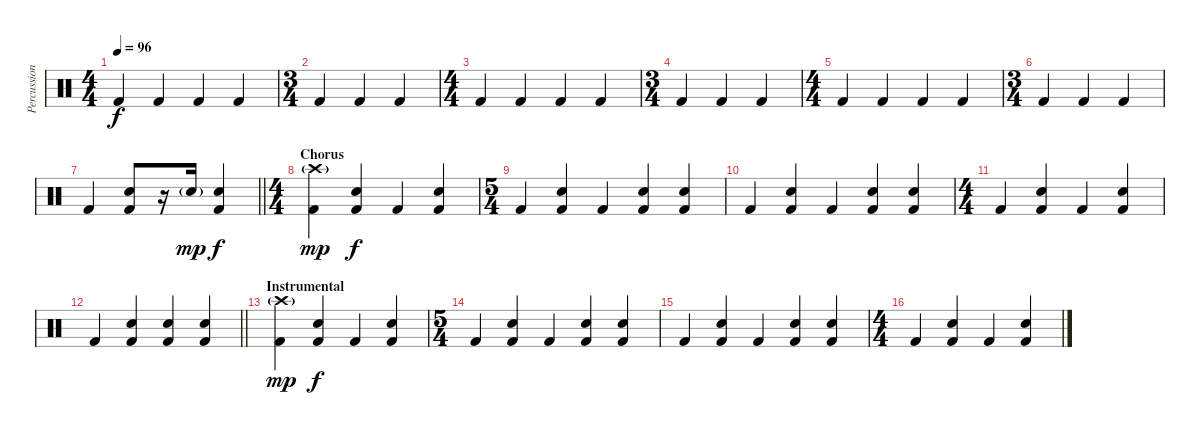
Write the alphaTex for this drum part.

\track ("Percussion" "Percussion") {instrument percussion}
\staff {score}
\articulation defaults
\ts (4 4)
\tempo 96
\clef neutral
\ks c "Kick (hit) 2".4{dy f} "Kick (hit) 2".4 "Kick (hit) 2".4 "Kick (hit) 2".4
|
\ts (3 4)
"Kick (hit) 2".4 "Kick (hit) 2".4 "Kick (hit) 2".4 |
\ts (4 4)
"Kick (hit) 2".4 "Kick (hit) 2".4 "Kick (hit) 2".4 "Kick (hit) 2".4 |
\ts (3 4)
"Kick (hit) 2".4 "Kick (hit) 2".4 "Kick (hit) 2".4 |
\ts (4 4)
"Kick (hit) 2".4 "Kick (hit) 2".4 "Kick (hit) 2".4 "Kick (hit) 2".4 |
\ts (3 4)
"Kick (hit) 2".4 "Kick (hit) 2".4 "Kick (hit) 2".4 |
\barLineRight lightlight "Kick (hit) 2".4
("Snare (hit) 2" "Kick (hit) 2").8 r.16 "Snare (hit) 2"{g}.16{dy mp} ("Snare (hit) 2" "Kick (hit) 2").4{dy f} |
\ts (4 4)
\section ("" "Chorus")
("Crash high (hit)"{g} "Kick (hit) 2").4{dy mp} ("Snare (hit) 2" "Kick (hit) 2").4{dy f} "Kick (hit) 2".4 ("Snare (hit) 2" "Kick (hit) 2").4 |
\ts (5 4)
"Kick (hit) 2".4 ("Snare (hit) 2" "Kick (hit) 2").4 "Kick (hit) 2".4 ("Snare (hit) 2" "Kick (hit) 2").4 ("Snare (hit) 2" "Kick (hit) 2").4 |
"Kick (hit) 2".4 ("Snare (hit) 2" "Kick (hit) 2").4 "Kick (hit) 2".4 ("Snare (hit) 2" "Kick (hit) 2").4 ("Snare (hit) 2" "Kick (hit) 2").4 |
\ts (4 4)
"Kick (hit) 2".4 ("Snare (hit) 2" "Kick (hit) 2").4 "Kick (hit) 2".4 ("Snare (hit) 2" "Kick (hit) 2").4 |
\barLineRight lightlight "Kick (hit) 2".4
("Snare (hit) 2" "Kick (hit) 2").4 ("Snare (hit) 2" "Kick (hit) 2").4 ("Snare (hit) 2" "Kick (hit) 2").4 |
\section ("" "Instrumental")
("Crash high (hit)"{g} "Kick (hit) 2").4{dy mp} ("Snare (hit) 2" "Kick (hit) 2").4{dy f} "Kick (hit) 2".4 ("Snare (hit) 2" "Kick (hit) 2").4 |
\ts (5 4)
"Kick (hit) 2".4 ("Snare (hit) 2" "Kick (hit) 2").4 "Kick (hit) 2".4 ("Snare (hit) 2" "Kick (hit) 2").4 ("Snare (hit) 2" "Kick (hit) 2").4 |
"Kick (hit) 2".4 ("Snare (hit) 2" "Kick (hit) 2").4 "Kick (hit) 2".4 ("Snare (hit) 2" "Kick (hit) 2").4 ("Snare (hit) 2" "Kick (hit) 2").4 |
\ts (4 4)
"Kick (hit) 2".4 ("Snare (hit) 2" "Kick (hit) 2").4 "Kick (hit) 2".4 ("Snare (hit) 2" "Kick (hit) 2").4
